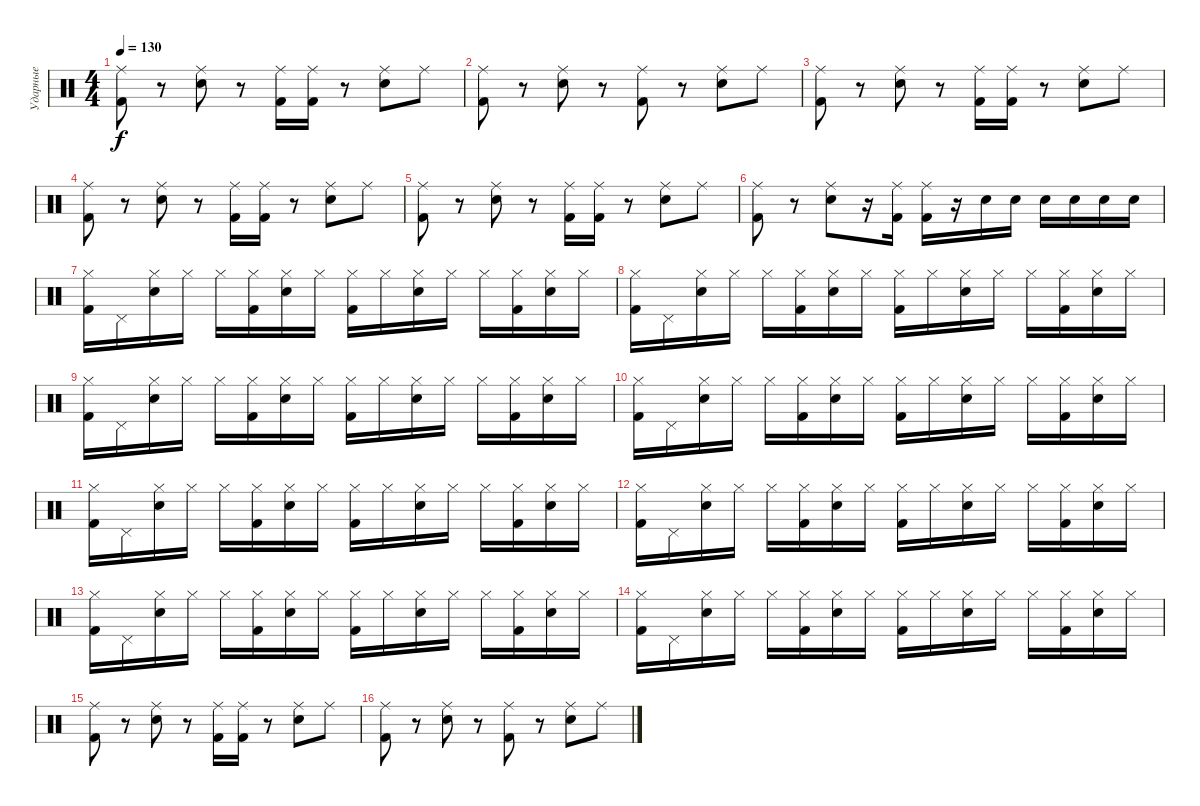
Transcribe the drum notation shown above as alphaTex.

\track ("Ударные" "Ударные") {instrument percussion}
\staff {score}
\articulation defaults
\ts (4 4)
\tempo 130
\clef neutral
\ks c
("Kick (hit) 2" "Ride (middle)").8{dy f} r.8 ("Electric Snare (hit)" "Ride (middle)").8 r.8 ("Kick (hit) 2" "Ride (middle)").16 ("Kick (hit) 2" "Ride (middle)").16 r.8 ("Electric Snare (hit)" "Ride (middle)").8 "Ride (middle)".8 |
("Kick (hit) 2" "Ride (middle)").8 r.8 ("Electric Snare (hit)" "Ride (middle)").8 r.8 ("Kick (hit) 2" "Ride (middle)").8 r.8 ("Electric Snare (hit)" "Ride (middle)").8 "Ride (middle)".8 |
("Kick (hit) 2" "Ride (middle)").8 r.8 ("Electric Snare (hit)" "Ride (middle)").8 r.8 ("Kick (hit) 2" "Ride (middle)").16 ("Kick (hit) 2" "Ride (middle)").16 r.8 ("Electric Snare (hit)" "Ride (middle)").8 "Ride (middle)".8 |
("Kick (hit) 2" "Ride (middle)").8 r.8 ("Electric Snare (hit)" "Ride (middle)").8 r.8 ("Kick (hit) 2" "Ride (middle)").16 ("Kick (hit) 2" "Ride (middle)").16 r.8 ("Electric Snare (hit)" "Ride (middle)").8 "Ride (middle)".8 |
("Kick (hit) 2" "Ride (middle)").8 r.8 ("Electric Snare (hit)" "Ride (middle)").8 r.8 ("Kick (hit) 2" "Ride (middle)").16 ("Kick (hit) 2" "Ride (middle)").16 r.8 ("Electric Snare (hit)" "Ride (middle)").8 "Ride (middle)".8 |
("Kick (hit) 2" "Ride (middle)").8 r.8 ("Electric Snare (hit)" "Ride (middle)").8 r.16 ("Kick (hit) 2" "Ride (middle)").16 ("Kick (hit) 2" "Ride (middle)").16 r.16 "Electric Snare (hit)".16 "Electric Snare (hit)".16 "Electric Snare (hit)".16 "Electric Snare (hit)".16 "Electric Snare (hit)".16 "Electric Snare (hit)".16 |
("Kick (hit) 2" "Hi-Hat (closed)").16 "Pedal Hi-Hat (hit)".16 ("Electric Snare (hit)" "Hi-Hat (closed)").16 "Hi-Hat (closed)".16 "Hi-Hat (closed)".16 ("Kick (hit) 2" "Hi-Hat (closed)").16 ("Electric Snare (hit)" "Hi-Hat (closed)").16 "Hi-Hat (closed)".16 ("Kick (hit) 2" "Hi-Hat (closed)").16 "Hi-Hat (closed)".16 ("Electric Snare (hit)" "Hi-Hat (closed)").16 "Hi-Hat (closed)".16 "Hi-Hat (closed)".16 ("Kick (hit) 2" "Hi-Hat (closed)").16 ("Electric Snare (hit)" "Hi-Hat (closed)").16 "Hi-Hat (closed)".16 |
("Kick (hit) 2" "Hi-Hat (closed)").16 "Pedal Hi-Hat (hit)".16 ("Electric Snare (hit)" "Hi-Hat (closed)").16 "Hi-Hat (closed)".16 "Hi-Hat (closed)".16 ("Kick (hit) 2" "Hi-Hat (closed)").16 ("Electric Snare (hit)" "Hi-Hat (closed)").16 "Hi-Hat (closed)".16 ("Kick (hit) 2" "Hi-Hat (closed)").16 "Hi-Hat (closed)".16 ("Electric Snare (hit)" "Hi-Hat (closed)").16 "Hi-Hat (closed)".16 "Hi-Hat (closed)".16 ("Kick (hit) 2" "Hi-Hat (closed)").16 ("Electric Snare (hit)" "Hi-Hat (closed)").16 "Hi-Hat (closed)".16 |
("Kick (hit) 2" "Hi-Hat (closed)").16 "Pedal Hi-Hat (hit)".16 ("Electric Snare (hit)" "Hi-Hat (closed)").16 "Hi-Hat (closed)".16 "Hi-Hat (closed)".16 ("Kick (hit) 2" "Hi-Hat (closed)").16 ("Electric Snare (hit)" "Hi-Hat (closed)").16 "Hi-Hat (closed)".16 ("Kick (hit) 2" "Hi-Hat (closed)").16 "Hi-Hat (closed)".16 ("Electric Snare (hit)" "Hi-Hat (closed)").16 "Hi-Hat (closed)".16 "Hi-Hat (closed)".16 ("Kick (hit) 2" "Hi-Hat (closed)").16 ("Electric Snare (hit)" "Hi-Hat (closed)").16 "Hi-Hat (closed)".16 |
("Kick (hit) 2" "Hi-Hat (closed)").16 "Pedal Hi-Hat (hit)".16 ("Electric Snare (hit)" "Hi-Hat (closed)").16 "Hi-Hat (closed)".16 "Hi-Hat (closed)".16 ("Kick (hit) 2" "Hi-Hat (closed)").16 ("Electric Snare (hit)" "Hi-Hat (closed)").16 "Hi-Hat (closed)".16 ("Kick (hit) 2" "Hi-Hat (closed)").16 "Hi-Hat (closed)".16 ("Electric Snare (hit)" "Hi-Hat (closed)").16 "Hi-Hat (closed)".16 "Hi-Hat (closed)".16 ("Kick (hit) 2" "Hi-Hat (closed)").16 ("Electric Snare (hit)" "Hi-Hat (closed)").16 "Hi-Hat (closed)".16 |
("Kick (hit) 2" "Hi-Hat (closed)").16 "Pedal Hi-Hat (hit)".16 ("Electric Snare (hit)" "Hi-Hat (closed)").16 "Hi-Hat (closed)".16 "Hi-Hat (closed)".16 ("Kick (hit) 2" "Hi-Hat (closed)").16 ("Electric Snare (hit)" "Hi-Hat (closed)").16 "Hi-Hat (closed)".16 ("Kick (hit) 2" "Hi-Hat (closed)").16 "Hi-Hat (closed)".16 ("Electric Snare (hit)" "Hi-Hat (closed)").16 "Hi-Hat (closed)".16 "Hi-Hat (closed)".16 ("Kick (hit) 2" "Hi-Hat (closed)").16 ("Electric Snare (hit)" "Hi-Hat (closed)").16 "Hi-Hat (closed)".16 |
("Kick (hit) 2" "Hi-Hat (closed)").16 "Pedal Hi-Hat (hit)".16 ("Electric Snare (hit)" "Hi-Hat (closed)").16 "Hi-Hat (closed)".16 "Hi-Hat (closed)".16 ("Kick (hit) 2" "Hi-Hat (closed)").16 ("Electric Snare (hit)" "Hi-Hat (closed)").16 "Hi-Hat (closed)".16 ("Kick (hit) 2" "Hi-Hat (closed)").16 "Hi-Hat (closed)".16 ("Electric Snare (hit)" "Hi-Hat (closed)").16 "Hi-Hat (closed)".16 "Hi-Hat (closed)".16 ("Kick (hit) 2" "Hi-Hat (closed)").16 ("Electric Snare (hit)" "Hi-Hat (closed)").16 "Hi-Hat (closed)".16 |
("Kick (hit) 2" "Hi-Hat (closed)").16 "Pedal Hi-Hat (hit)".16 ("Electric Snare (hit)" "Hi-Hat (closed)").16 "Hi-Hat (closed)".16 "Hi-Hat (closed)".16 ("Kick (hit) 2" "Hi-Hat (closed)").16 ("Electric Snare (hit)" "Hi-Hat (closed)").16 "Hi-Hat (closed)".16 ("Kick (hit) 2" "Hi-Hat (closed)").16 "Hi-Hat (closed)".16 ("Electric Snare (hit)" "Hi-Hat (closed)").16 "Hi-Hat (closed)".16 "Hi-Hat (closed)".16 ("Kick (hit) 2" "Hi-Hat (closed)").16 ("Electric Snare (hit)" "Hi-Hat (closed)").16 "Hi-Hat (closed)".16 |
("Kick (hit) 2" "Hi-Hat (closed)").16 "Pedal Hi-Hat (hit)".16 ("Electric Snare (hit)" "Hi-Hat (closed)").16 "Hi-Hat (closed)".16 "Hi-Hat (closed)".16 ("Kick (hit) 2" "Hi-Hat (closed)").16 ("Electric Snare (hit)" "Hi-Hat (closed)").16 "Hi-Hat (closed)".16 ("Kick (hit) 2" "Hi-Hat (closed)").16 "Hi-Hat (closed)".16 ("Electric Snare (hit)" "Hi-Hat (closed)").16 "Hi-Hat (closed)".16 "Hi-Hat (closed)".16 ("Kick (hit) 2" "Hi-Hat (closed)").16 ("Electric Snare (hit)" "Hi-Hat (closed)").16 "Hi-Hat (closed)".16 |
("Kick (hit) 2" "Ride (middle)").8 r.8 ("Electric Snare (hit)" "Ride (middle)").8 r.8 ("Kick (hit) 2" "Ride (middle)").16 ("Kick (hit) 2" "Ride (middle)").16 r.8 ("Electric Snare (hit)" "Ride (middle)").8 "Ride (middle)".8 |
("Kick (hit) 2" "Ride (middle)").8 r.8 ("Electric Snare (hit)" "Ride (middle)").8 r.8 ("Kick (hit) 2" "Ride (middle)").8 r.8 ("Electric Snare (hit)" "Ride (middle)").8 "Ride (middle)".8
